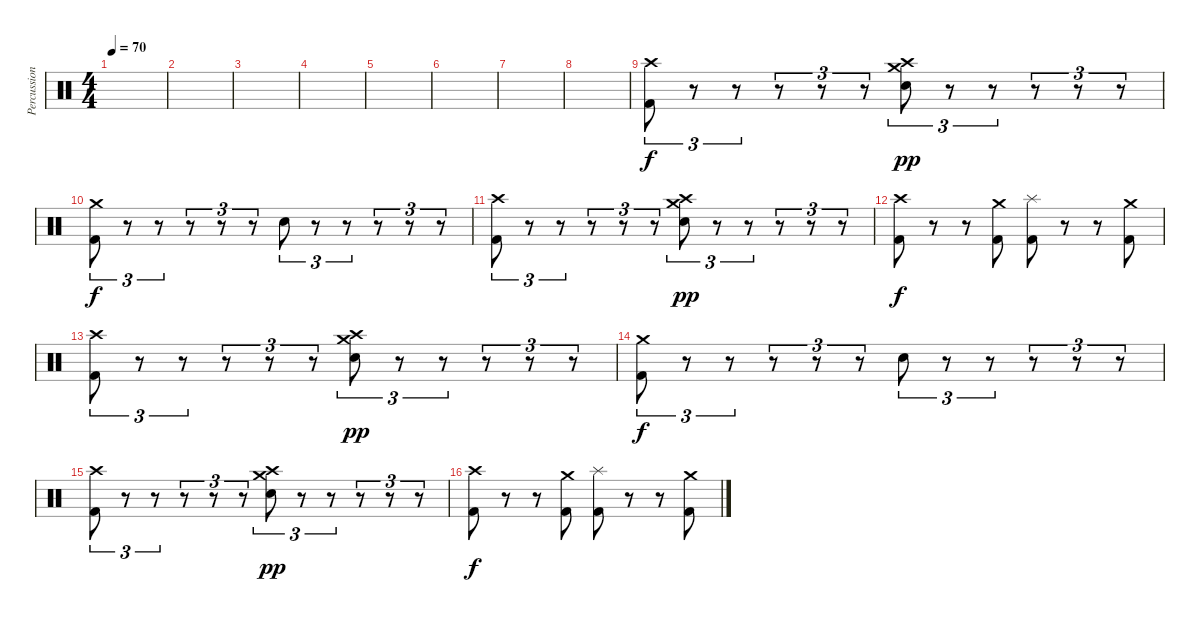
\track ("Percussion" "Percussion") {instrument percussion}
\staff {score}
\articulation defaults
\ts (4 4)
\tempo 70
\clef neutral
\ks c
|
|
|
|
|
|
|
|
("Crash high (hit)" "Kick (hit) 2").8{tu (3 2)} r.8{tu (3 2)} r.8{tu (3 2)} r.8{tu (3 2)} r.8{tu (3 2)} r.8{tu (3 2)} ("Crash high (hit)" "Crash medium (hit)" "Electric Snare (hit)").8{tu (3 2) dy pp} r.8{tu (3 2)} r.8{tu (3 2)} r.8{tu (3 2)} r.8{tu (3 2)} r.8{tu (3 2)} |
("Crash medium (hit)" "Kick (hit) 2").8{tu (3 2) dy f} r.8{tu (3 2)} r.8{tu (3 2)} r.8{tu (3 2)} r.8{tu (3 2)} r.8{tu (3 2)} "Electric Snare (hit)".8{tu (3 2)} r.8{tu (3 2)} r.8{tu (3 2)} r.8{tu (3 2)} r.8{tu (3 2)} r.8{tu (3 2)} |
("Crash high (hit)" "Kick (hit) 2").8{tu (3 2)} r.8{tu (3 2)} r.8{tu (3 2)} r.8{tu (3 2)} r.8{tu (3 2)} r.8{tu (3 2)} ("Crash high (hit)" "Crash medium (hit)" "Electric Snare (hit)").8{tu (3 2) dy pp} r.8{tu (3 2)} r.8{tu (3 2)} r.8{tu (3 2)} r.8{tu (3 2)} r.8{tu (3 2)} |
("Crash high (hit)" "Kick (hit) 2").8{dy f} r.8 r.8 ("Crash medium (hit)" "Kick (hit) 2").8 ("Splash (hit)" "Kick (hit) 2").8 r.8 r.8 ("Crash medium (hit)" "Kick (hit) 2").8 |
("Crash high (hit)" "Kick (hit) 2").8{tu (3 2)} r.8{tu (3 2)} r.8{tu (3 2)} r.8{tu (3 2)} r.8{tu (3 2)} r.8{tu (3 2)} ("Crash high (hit)" "Crash medium (hit)" "Electric Snare (hit)").8{tu (3 2) dy pp} r.8{tu (3 2)} r.8{tu (3 2)} r.8{tu (3 2)} r.8{tu (3 2)} r.8{tu (3 2)} |
("Crash medium (hit)" "Kick (hit) 2").8{tu (3 2) dy f} r.8{tu (3 2)} r.8{tu (3 2)} r.8{tu (3 2)} r.8{tu (3 2)} r.8{tu (3 2)} "Electric Snare (hit)".8{tu (3 2)} r.8{tu (3 2)} r.8{tu (3 2)} r.8{tu (3 2)} r.8{tu (3 2)} r.8{tu (3 2)} |
("Crash high (hit)" "Kick (hit) 2").8{tu (3 2)} r.8{tu (3 2)} r.8{tu (3 2)} r.8{tu (3 2)} r.8{tu (3 2)} r.8{tu (3 2)} ("Crash high (hit)" "Crash medium (hit)" "Electric Snare (hit)").8{tu (3 2) dy pp} r.8{tu (3 2)} r.8{tu (3 2)} r.8{tu (3 2)} r.8{tu (3 2)} r.8{tu (3 2)} |
("Crash high (hit)" "Kick (hit) 2").8{dy f} r.8 r.8 ("Crash medium (hit)" "Kick (hit) 2").8 ("Splash (hit)" "Kick (hit) 2").8 r.8 r.8 ("Crash medium (hit)" "Kick (hit) 2").8
